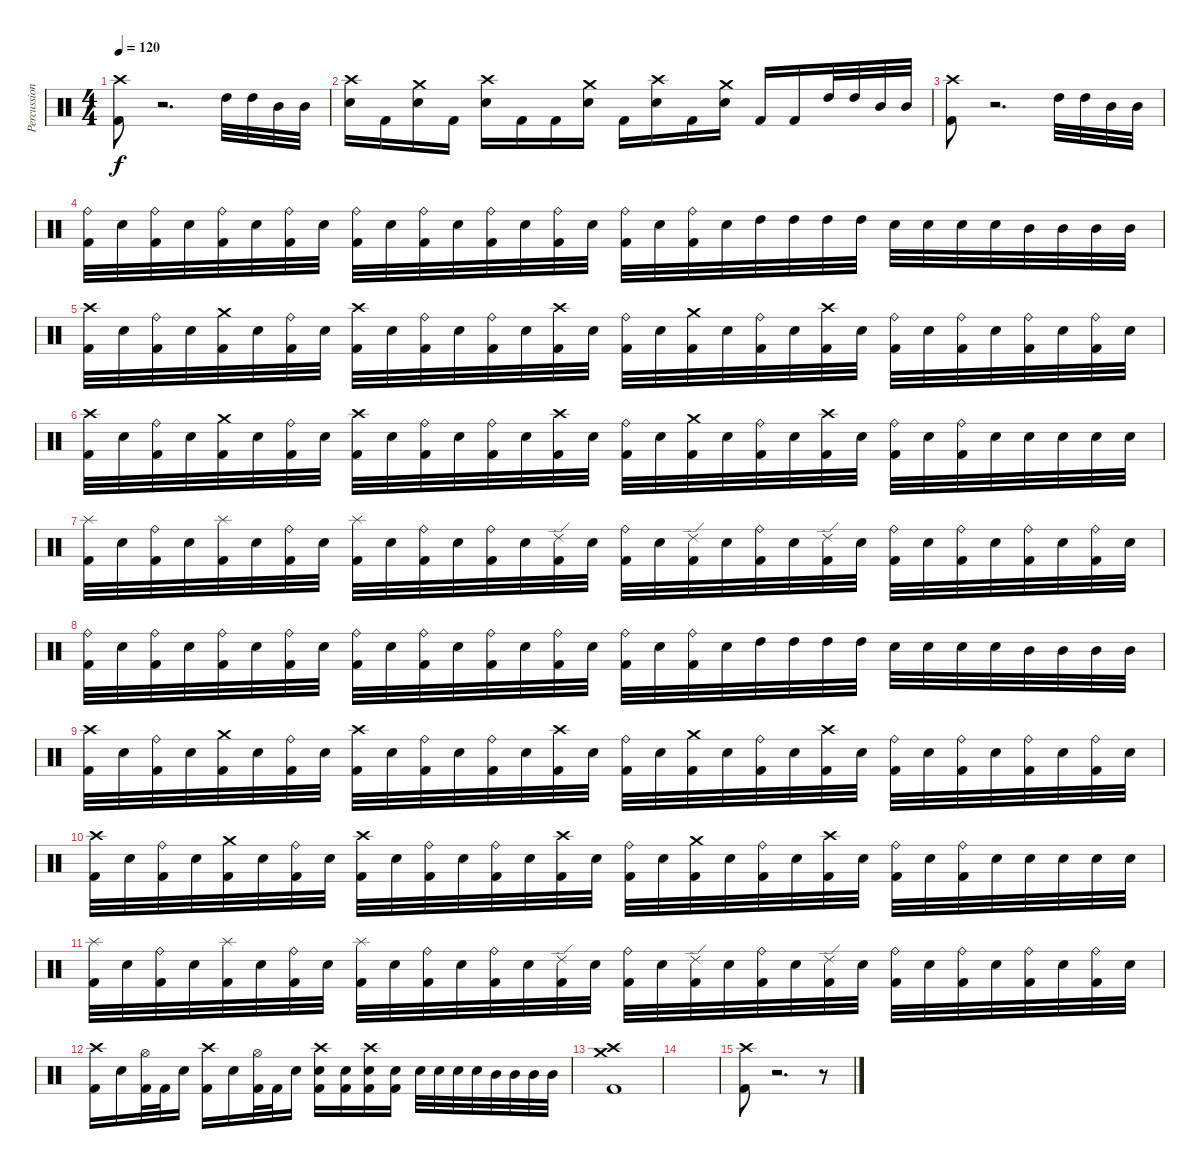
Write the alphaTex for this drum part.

\track ("Percussion" "Percussion") {instrument percussion}
\staff {score}
\articulation defaults
\ts (4 4)
\tempo 120
\clef neutral
\ks c
("Crash high (hit)" "Kick (hit) 2").8{dy f} r.2{d volume 0} "High Tom (hit)".32{volume 13} "High Tom (hit)".32 "Mid Tom (hit)".32 "Mid Tom (hit)".32 |
("Crash high (hit)" "Electric Snare (hit)").16 "Kick (hit) 2".16 ("Crash medium (hit)" "Electric Snare (hit)").16 "Kick (hit) 2".16 ("Crash high (hit)" "Electric Snare (hit)").16 "Kick (hit) 2".16 "Kick (hit) 2".16 ("Crash medium (hit)" "Electric Snare (hit)").16 "Kick (hit) 2".16 ("Crash high (hit)" "Electric Snare (hit)").16 "Kick (hit) 2".16 ("Crash medium (hit)" "Electric Snare (hit)").16 "Kick (hit) 2".16 "Kick (hit) 2".16 "High Tom (hit)".32 "High Tom (hit)".32 "Mid Tom (hit)".32 "Mid Tom (hit)".32 |
("Crash high (hit)" "Kick (hit) 2").8 r.2{d volume 0} "High Tom (hit)".32{volume 13} "High Tom (hit)".32 "Mid Tom (hit)".32 "Mid Tom (hit)".32 |
("Ride (bell)" "Kick (hit) 2").32 "Electric Snare (hit)".32 ("Ride (bell)" "Kick (hit) 2").32 "Electric Snare (hit)".32 ("Ride (bell)" "Kick (hit) 2").32 "Electric Snare (hit)".32 ("Ride (bell)" "Kick (hit) 2").32 "Electric Snare (hit)".32 ("Ride (bell)" "Kick (hit) 2").32 "Electric Snare (hit)".32 ("Ride (bell)" "Kick (hit) 2").32 "Electric Snare (hit)".32 ("Ride (bell)" "Kick (hit) 2").32 "Electric Snare (hit)".32 ("Ride (bell)" "Kick (hit) 2").32 "Electric Snare (hit)".32 ("Ride (bell)" "Kick (hit) 2").32 "Electric Snare (hit)".32 ("Ride (bell)" "Kick (hit) 2").32 "Electric Snare (hit)".32 "High Tom (hit)".32 "High Tom (hit)".32 "High Tom (hit)".32 "High Tom (hit)".32 "Electric Snare (hit)".32 "Electric Snare (hit)".32 "Electric Snare (hit)".32 "Electric Snare (hit)".32 "Mid Tom (hit)".32 "Mid Tom (hit)".32 "Mid Tom (hit)".32 "Mid Tom (hit)".32 |
("Crash high (hit)" "Kick (hit) 2").32 "Electric Snare (hit)".32 ("Ride (bell)" "Kick (hit) 2").32 "Electric Snare (hit)".32 ("Crash medium (hit)" "Kick (hit) 2").32 "Electric Snare (hit)".32 ("Ride (bell)" "Kick (hit) 2").32 "Electric Snare (hit)".32 ("Crash high (hit)" "Kick (hit) 2").32 "Electric Snare (hit)".32 ("Ride (bell)" "Kick (hit) 2").32 "Electric Snare (hit)".32 ("Ride (bell)" "Kick (hit) 2").32 "Electric Snare (hit)".32 ("Crash high (hit)" "Kick (hit) 2").32 "Electric Snare (hit)".32 ("Ride (bell)" "Kick (hit) 2").32 "Electric Snare (hit)".32 ("Crash medium (hit)" "Kick (hit) 2").32 "Electric Snare (hit)".32 ("Ride (bell)" "Kick (hit) 2").32 "Electric Snare (hit)".32 ("Crash high (hit)" "Kick (hit) 2").32 "Electric Snare (hit)".32 ("Ride (bell)" "Kick (hit) 2").32 "Electric Snare (hit)".32 ("Ride (bell)" "Kick (hit) 2").32 "Electric Snare (hit)".32 ("Ride (bell)" "Kick (hit) 2").32 "Electric Snare (hit)".32 ("Ride (bell)" "Kick (hit) 2").32 "Electric Snare (hit)".32 |
("Crash high (hit)" "Kick (hit) 2").32 "Electric Snare (hit)".32 ("Ride (bell)" "Kick (hit) 2").32 "Electric Snare (hit)".32 ("Crash medium (hit)" "Kick (hit) 2").32 "Electric Snare (hit)".32 ("Ride (bell)" "Kick (hit) 2").32 "Electric Snare (hit)".32 ("Crash high (hit)" "Kick (hit) 2").32 "Electric Snare (hit)".32 ("Ride (bell)" "Kick (hit) 2").32 "Electric Snare (hit)".32 ("Ride (bell)" "Kick (hit) 2").32 "Electric Snare (hit)".32 ("Crash high (hit)" "Kick (hit) 2").32 "Electric Snare (hit)".32 ("Ride (bell)" "Kick (hit) 2").32 "Electric Snare (hit)".32 ("Crash medium (hit)" "Kick (hit) 2").32 "Electric Snare (hit)".32 ("Ride (bell)" "Kick (hit) 2").32 "Electric Snare (hit)".32 ("Crash high (hit)" "Kick (hit) 2").32 "Electric Snare (hit)".32 ("Ride (bell)" "Kick (hit) 2").32 "Electric Snare (hit)".32 ("Ride (bell)" "Kick (hit) 2").32 "Electric Snare (hit)".32 "Electric Snare (hit)".32 "Electric Snare (hit)".32 "Electric Snare (hit)".32 "Electric Snare (hit)".32 |
("Splash (hit)" "Kick (hit) 2").32 "Electric Snare (hit)".32 ("Ride (bell)" "Kick (hit) 2").32 "Electric Snare (hit)".32 ("Splash (hit)" "Kick (hit) 2").32 "Electric Snare (hit)".32 ("Ride (bell)" "Kick (hit) 2").32 "Electric Snare (hit)".32 ("Splash (hit)" "Kick (hit) 2").32 "Electric Snare (hit)".32 ("Ride (bell)" "Kick (hit) 2").32 "Electric Snare (hit)".32 ("Ride (bell)" "Kick (hit) 2").32 "Electric Snare (hit)".32 ("Ride (edge) 2" "Kick (hit) 2").32 "Electric Snare (hit)".32 ("Ride (bell)" "Kick (hit) 2").32 "Electric Snare (hit)".32 ("Ride (edge) 2" "Kick (hit) 2").32 "Electric Snare (hit)".32 ("Ride (bell)" "Kick (hit) 2").32 "Electric Snare (hit)".32 ("Ride (edge) 2" "Kick (hit) 2").32 "Electric Snare (hit)".32 ("Ride (bell)" "Kick (hit) 2").32 "Electric Snare (hit)".32 ("Ride (bell)" "Kick (hit) 2").32 "Electric Snare (hit)".32 ("Ride (bell)" "Kick (hit) 2").32 "Electric Snare (hit)".32 ("Ride (bell)" "Kick (hit) 2").32 "Electric Snare (hit)".32 |
("Ride (bell)" "Kick (hit) 2").32 "Electric Snare (hit)".32 ("Ride (bell)" "Kick (hit) 2").32 "Electric Snare (hit)".32 ("Ride (bell)" "Kick (hit) 2").32 "Electric Snare (hit)".32 ("Ride (bell)" "Kick (hit) 2").32 "Electric Snare (hit)".32 ("Ride (bell)" "Kick (hit) 2").32 "Electric Snare (hit)".32 ("Ride (bell)" "Kick (hit) 2").32 "Electric Snare (hit)".32 ("Ride (bell)" "Kick (hit) 2").32 "Electric Snare (hit)".32 ("Ride (bell)" "Kick (hit) 2").32 "Electric Snare (hit)".32 ("Ride (bell)" "Kick (hit) 2").32 "Electric Snare (hit)".32 ("Ride (bell)" "Kick (hit) 2").32 "Electric Snare (hit)".32 "High Tom (hit)".32 "High Tom (hit)".32 "High Tom (hit)".32 "High Tom (hit)".32 "Electric Snare (hit)".32 "Electric Snare (hit)".32 "Electric Snare (hit)".32 "Electric Snare (hit)".32 "Mid Tom (hit)".32 "Mid Tom (hit)".32 "Mid Tom (hit)".32 "Mid Tom (hit)".32 |
("Crash high (hit)" "Kick (hit) 2").32 "Electric Snare (hit)".32 ("Ride (bell)" "Kick (hit) 2").32 "Electric Snare (hit)".32 ("Crash medium (hit)" "Kick (hit) 2").32 "Electric Snare (hit)".32 ("Ride (bell)" "Kick (hit) 2").32 "Electric Snare (hit)".32 ("Crash high (hit)" "Kick (hit) 2").32 "Electric Snare (hit)".32 ("Ride (bell)" "Kick (hit) 2").32 "Electric Snare (hit)".32 ("Ride (bell)" "Kick (hit) 2").32 "Electric Snare (hit)".32 ("Crash high (hit)" "Kick (hit) 2").32 "Electric Snare (hit)".32 ("Ride (bell)" "Kick (hit) 2").32 "Electric Snare (hit)".32 ("Crash medium (hit)" "Kick (hit) 2").32 "Electric Snare (hit)".32 ("Ride (bell)" "Kick (hit) 2").32 "Electric Snare (hit)".32 ("Crash high (hit)" "Kick (hit) 2").32 "Electric Snare (hit)".32 ("Ride (bell)" "Kick (hit) 2").32 "Electric Snare (hit)".32 ("Ride (bell)" "Kick (hit) 2").32 "Electric Snare (hit)".32 ("Ride (bell)" "Kick (hit) 2").32 "Electric Snare (hit)".32 ("Ride (bell)" "Kick (hit) 2").32 "Electric Snare (hit)".32 |
("Crash high (hit)" "Kick (hit) 2").32 "Electric Snare (hit)".32 ("Ride (bell)" "Kick (hit) 2").32 "Electric Snare (hit)".32 ("Crash medium (hit)" "Kick (hit) 2").32 "Electric Snare (hit)".32 ("Ride (bell)" "Kick (hit) 2").32 "Electric Snare (hit)".32 ("Crash high (hit)" "Kick (hit) 2").32 "Electric Snare (hit)".32 ("Ride (bell)" "Kick (hit) 2").32 "Electric Snare (hit)".32 ("Ride (bell)" "Kick (hit) 2").32 "Electric Snare (hit)".32 ("Crash high (hit)" "Kick (hit) 2").32 "Electric Snare (hit)".32 ("Ride (bell)" "Kick (hit) 2").32 "Electric Snare (hit)".32 ("Crash medium (hit)" "Kick (hit) 2").32 "Electric Snare (hit)".32 ("Ride (bell)" "Kick (hit) 2").32 "Electric Snare (hit)".32 ("Crash high (hit)" "Kick (hit) 2").32 "Electric Snare (hit)".32 ("Ride (bell)" "Kick (hit) 2").32 "Electric Snare (hit)".32 ("Ride (bell)" "Kick (hit) 2").32 "Electric Snare (hit)".32 "Electric Snare (hit)".32 "Electric Snare (hit)".32 "Electric Snare (hit)".32 "Electric Snare (hit)".32 |
("Splash (hit)" "Kick (hit) 2").32 "Electric Snare (hit)".32 ("Ride (bell)" "Kick (hit) 2").32 "Electric Snare (hit)".32 ("Splash (hit)" "Kick (hit) 2").32 "Electric Snare (hit)".32 ("Ride (bell)" "Kick (hit) 2").32 "Electric Snare (hit)".32 ("Splash (hit)" "Kick (hit) 2").32 "Electric Snare (hit)".32 ("Ride (bell)" "Kick (hit) 2").32 "Electric Snare (hit)".32 ("Ride (bell)" "Kick (hit) 2").32 "Electric Snare (hit)".32 ("Ride (edge) 2" "Kick (hit) 2").32 "Electric Snare (hit)".32 ("Ride (bell)" "Kick (hit) 2").32 "Electric Snare (hit)".32 ("Ride (edge) 2" "Kick (hit) 2").32 "Electric Snare (hit)".32 ("Ride (bell)" "Kick (hit) 2").32 "Electric Snare (hit)".32 ("Ride (edge) 2" "Kick (hit) 2").32 "Electric Snare (hit)".32 ("Ride (bell)" "Kick (hit) 2").32 "Electric Snare (hit)".32 ("Ride (bell)" "Kick (hit) 2").32 "Electric Snare (hit)".32 ("Ride (bell)" "Kick (hit) 2").32 "Electric Snare (hit)".32 ("Ride (bell)" "Kick (hit) 2").32 "Electric Snare (hit)".32 |
("Crash high (hit)" "Kick (hit) 2").16 "Electric Snare (hit)".16 ("Hi-Hat (open)" "Kick (hit) 2").32 "Kick (hit) 2".32 "Electric Snare (hit)".16 ("Crash high (hit)" "Kick (hit) 2").16 "Electric Snare (hit)".16 ("Hi-Hat (open)" "Kick (hit) 2").32 "Kick (hit) 2".32 "Electric Snare (hit)".16 ("Crash high (hit)" "Electric Snare (hit)" "Kick (hit) 2").16 ("Electric Snare (hit)" "Kick (hit) 2").16 ("Crash high (hit)" "Electric Snare (hit)" "Kick (hit) 2").16 ("Electric Snare (hit)" "Kick (hit) 2").16 "Electric Snare (hit)".32 "Electric Snare (hit)".32 "Electric Snare (hit)".32 "Electric Snare (hit)".32 "Mid Tom (hit)".32 "Mid Tom (hit)".32 "Mid Tom (hit)".32 "Mid Tom (hit)".32 |
("Crash high (hit)" "Crash medium (hit)" "Kick (hit) 2").1 |
|
("Crash high (hit)" "Kick (hit) 2").8 r.2{d volume 0} r.8
